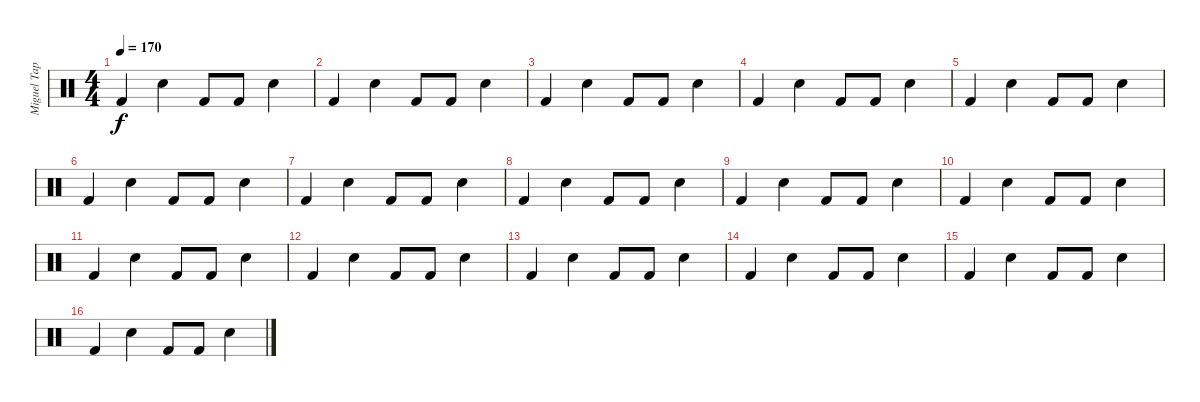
\track ("Miguel Tapia" "Miguel Tap") {instrument percussion}
\staff {score}
\articulation defaults
\ts (4 4)
\tempo 170
\clef neutral
\ks c "Kick (hit) 2".4{dy f} "Snare (hit) 2".4 "Kick (hit) 2".8 "Kick (hit) 2".8 "Snare (hit) 2".4
|
"Kick (hit) 2".4 "Snare (hit) 2".4 "Kick (hit) 2".8 "Kick (hit) 2".8 "Snare (hit) 2".4 |
"Kick (hit) 2".4 "Snare (hit) 2".4 "Kick (hit) 2".8 "Kick (hit) 2".8 "Snare (hit) 2".4 |
"Kick (hit) 2".4 "Snare (hit) 2".4 "Kick (hit) 2".8 "Kick (hit) 2".8 "Snare (hit) 2".4 |
"Kick (hit) 2".4 "Snare (hit) 2".4 "Kick (hit) 2".8 "Kick (hit) 2".8 "Snare (hit) 2".4 |
"Kick (hit) 2".4 "Snare (hit) 2".4 "Kick (hit) 2".8 "Kick (hit) 2".8 "Snare (hit) 2".4 |
"Kick (hit) 2".4 "Snare (hit) 2".4 "Kick (hit) 2".8 "Kick (hit) 2".8 "Snare (hit) 2".4 |
"Kick (hit) 2".4 "Snare (hit) 2".4 "Kick (hit) 2".8 "Kick (hit) 2".8 "Snare (hit) 2".4 |
"Kick (hit) 2".4 "Snare (hit) 2".4 "Kick (hit) 2".8 "Kick (hit) 2".8 "Snare (hit) 2".4 |
"Kick (hit) 2".4 "Snare (hit) 2".4 "Kick (hit) 2".8 "Kick (hit) 2".8 "Snare (hit) 2".4 |
"Kick (hit) 2".4 "Snare (hit) 2".4 "Kick (hit) 2".8 "Kick (hit) 2".8 "Snare (hit) 2".4 |
"Kick (hit) 2".4 "Snare (hit) 2".4 "Kick (hit) 2".8 "Kick (hit) 2".8 "Snare (hit) 2".4 |
"Kick (hit) 2".4 "Snare (hit) 2".4 "Kick (hit) 2".8 "Kick (hit) 2".8 "Snare (hit) 2".4 |
"Kick (hit) 2".4 "Snare (hit) 2".4 "Kick (hit) 2".8 "Kick (hit) 2".8 "Snare (hit) 2".4 |
"Kick (hit) 2".4 "Snare (hit) 2".4 "Kick (hit) 2".8 "Kick (hit) 2".8 "Snare (hit) 2".4 |
"Kick (hit) 2".4 "Snare (hit) 2".4 "Kick (hit) 2".8 "Kick (hit) 2".8 "Snare (hit) 2".4
